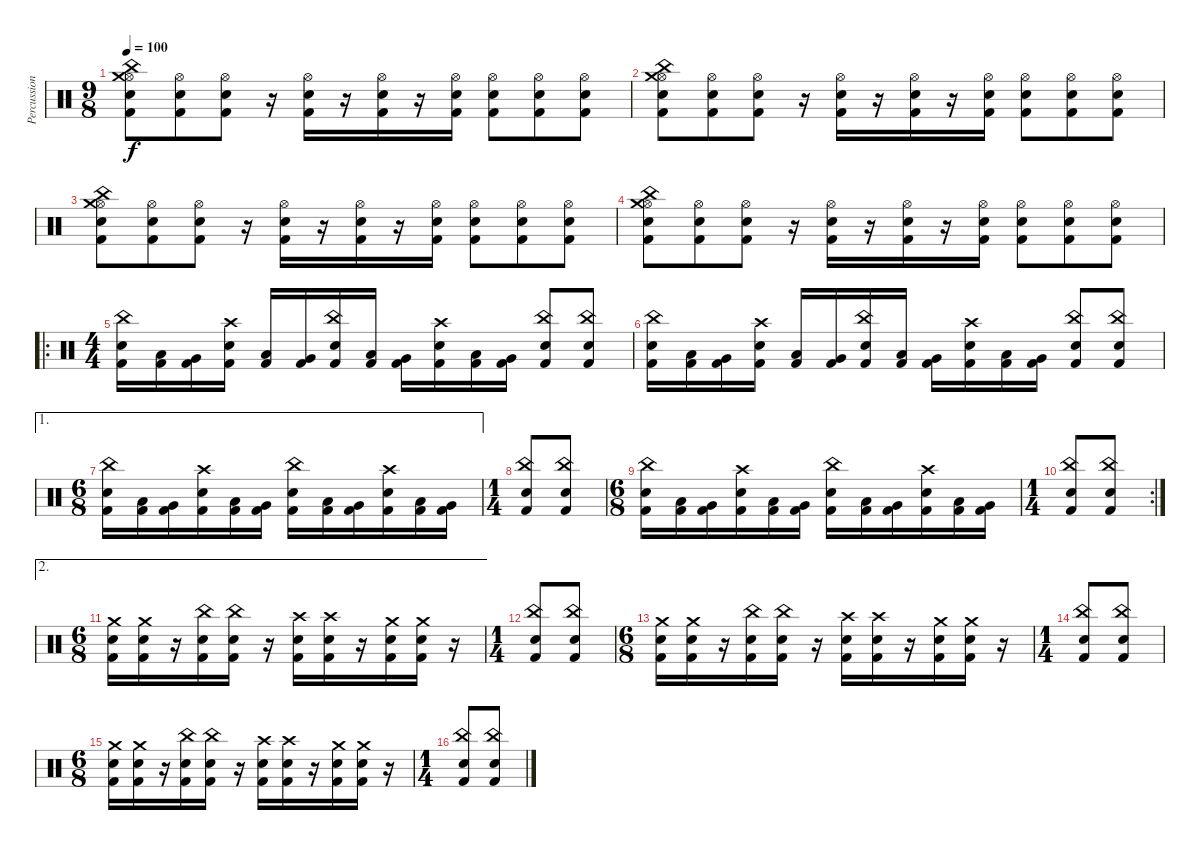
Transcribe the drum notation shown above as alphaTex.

\track ("Percussion" "Percussion") {instrument percussion}
\staff {score}
\articulation defaults
\ts (9 8)
\tempo 100
\clef neutral
\ks c
("Hi-Hat (open)" "Crash medium (hit)" "Electric Snare (hit)" "China (hit)" "Kick (hit) 2").8{dy f} ("Hi-Hat (open)" "Electric Snare (hit)" "Kick (hit) 2").8 ("Hi-Hat (open)" "Electric Snare (hit)" "Kick (hit) 2").8 r.16 ("Hi-Hat (open)" "Electric Snare (hit)" "Kick (hit) 2").16 r.16 ("Hi-Hat (open)" "Electric Snare (hit)" "Kick (hit) 2").16 r.16 ("Hi-Hat (open)" "Electric Snare (hit)" "Kick (hit) 2").16 ("Hi-Hat (open)" "Electric Snare (hit)" "Kick (hit) 2").8 ("Hi-Hat (open)" "Electric Snare (hit)" "Kick (hit) 2").8 ("Hi-Hat (open)" "Electric Snare (hit)" "Kick (hit) 2").8 |
("Hi-Hat (open)" "Crash medium (hit)" "Electric Snare (hit)" "China (hit)" "Kick (hit) 2").8 ("Hi-Hat (open)" "Electric Snare (hit)" "Kick (hit) 2").8 ("Hi-Hat (open)" "Electric Snare (hit)" "Kick (hit) 2").8 r.16 ("Hi-Hat (open)" "Electric Snare (hit)" "Kick (hit) 2").16 r.16 ("Hi-Hat (open)" "Electric Snare (hit)" "Kick (hit) 2").16 r.16 ("Hi-Hat (open)" "Electric Snare (hit)" "Kick (hit) 2").16 ("Hi-Hat (open)" "Electric Snare (hit)" "Kick (hit) 2").8 ("Hi-Hat (open)" "Electric Snare (hit)" "Kick (hit) 2").8 ("Hi-Hat (open)" "Electric Snare (hit)" "Kick (hit) 2").8 |
("Hi-Hat (open)" "Crash medium (hit)" "Electric Snare (hit)" "China (hit)" "Kick (hit) 2").8 ("Hi-Hat (open)" "Electric Snare (hit)" "Kick (hit) 2").8 ("Hi-Hat (open)" "Electric Snare (hit)" "Kick (hit) 2").8 r.16 ("Hi-Hat (open)" "Electric Snare (hit)" "Kick (hit) 2").16 r.16 ("Hi-Hat (open)" "Electric Snare (hit)" "Kick (hit) 2").16 r.16 ("Hi-Hat (open)" "Electric Snare (hit)" "Kick (hit) 2").16 ("Hi-Hat (open)" "Electric Snare (hit)" "Kick (hit) 2").8 ("Hi-Hat (open)" "Electric Snare (hit)" "Kick (hit) 2").8 ("Hi-Hat (open)" "Electric Snare (hit)" "Kick (hit) 2").8 |
("Hi-Hat (open)" "Crash medium (hit)" "Electric Snare (hit)" "China (hit)" "Kick (hit) 2").8 ("Hi-Hat (open)" "Electric Snare (hit)" "Kick (hit) 2").8 ("Hi-Hat (open)" "Electric Snare (hit)" "Kick (hit) 2").8 r.16 ("Hi-Hat (open)" "Electric Snare (hit)" "Kick (hit) 2").16 r.16 ("Hi-Hat (open)" "Electric Snare (hit)" "Kick (hit) 2").16 r.16 ("Hi-Hat (open)" "Electric Snare (hit)" "Kick (hit) 2").16 ("Hi-Hat (open)" "Electric Snare (hit)" "Kick (hit) 2").8 ("Hi-Hat (open)" "Electric Snare (hit)" "Kick (hit) 2").8 ("Hi-Hat (open)" "Electric Snare (hit)" "Kick (hit) 2").8 |
\ro
\ts (4 4)
("China (hit)" "Electric Snare (hit)" "Kick (hit) 2").16 ("Low Tom (hit)" "Kick (hit) 2").16 ("Very Low Tom (hit)" "Kick (hit) 2").16 ("Crash high (hit)" "Electric Snare (hit)" "Kick (hit) 2").16 ("Low Tom (hit)" "Kick (hit) 2").16 ("Very Low Tom (hit)" "Kick (hit) 2").16 ("China (hit)" "Electric Snare (hit)" "Kick (hit) 2").16 ("Low Tom (hit)" "Kick (hit) 2").16 ("Very Low Tom (hit)" "Kick (hit) 2").16 ("Crash high (hit)" "Electric Snare (hit)" "Kick (hit) 2").16 ("Low Tom (hit)" "Kick (hit) 2").16 ("Very Low Tom (hit)" "Kick (hit) 2").16 ("China (hit)" "Electric Snare (hit)" "Kick (hit) 2").8 ("China (hit)" "Electric Snare (hit)" "Kick (hit) 2").8 |
("China (hit)" "Electric Snare (hit)" "Kick (hit) 2").16 ("Low Tom (hit)" "Kick (hit) 2").16 ("Very Low Tom (hit)" "Kick (hit) 2").16 ("Crash high (hit)" "Electric Snare (hit)" "Kick (hit) 2").16 ("Low Tom (hit)" "Kick (hit) 2").16 ("Very Low Tom (hit)" "Kick (hit) 2").16 ("China (hit)" "Electric Snare (hit)" "Kick (hit) 2").16 ("Low Tom (hit)" "Kick (hit) 2").16 ("Very Low Tom (hit)" "Kick (hit) 2").16 ("Crash high (hit)" "Electric Snare (hit)" "Kick (hit) 2").16 ("Low Tom (hit)" "Kick (hit) 2").16 ("Very Low Tom (hit)" "Kick (hit) 2").16 ("China (hit)" "Electric Snare (hit)" "Kick (hit) 2").8 ("China (hit)" "Electric Snare (hit)" "Kick (hit) 2").8 |
\ae 1
\ts (6 8)
("China (hit)" "Electric Snare (hit)" "Kick (hit) 2").16 ("Low Tom (hit)" "Kick (hit) 2").16 ("Very Low Tom (hit)" "Kick (hit) 2").16 ("Crash high (hit)" "Electric Snare (hit)" "Kick (hit) 2").16 ("Low Tom (hit)" "Kick (hit) 2").16 ("Very Low Tom (hit)" "Kick (hit) 2").16 ("China (hit)" "Electric Snare (hit)" "Kick (hit) 2").16 ("Low Tom (hit)" "Kick (hit) 2").16 ("Very Low Tom (hit)" "Kick (hit) 2").16 ("Crash high (hit)" "Electric Snare (hit)" "Kick (hit) 2").16 ("Low Tom (hit)" "Kick (hit) 2").16 ("Very Low Tom (hit)" "Kick (hit) 2").16 |
\ts (1 4)
("China (hit)" "Electric Snare (hit)" "Kick (hit) 2").8 ("China (hit)" "Electric Snare (hit)" "Kick (hit) 2").8 |
\ts (6 8)
("China (hit)" "Electric Snare (hit)" "Kick (hit) 2").16 ("Low Tom (hit)" "Kick (hit) 2").16 ("Very Low Tom (hit)" "Kick (hit) 2").16 ("Crash high (hit)" "Electric Snare (hit)" "Kick (hit) 2").16 ("Low Tom (hit)" "Kick (hit) 2").16 ("Very Low Tom (hit)" "Kick (hit) 2").16 ("China (hit)" "Electric Snare (hit)" "Kick (hit) 2").16 ("Low Tom (hit)" "Kick (hit) 2").16 ("Very Low Tom (hit)" "Kick (hit) 2").16 ("Crash high (hit)" "Electric Snare (hit)" "Kick (hit) 2").16 ("Low Tom (hit)" "Kick (hit) 2").16 ("Very Low Tom (hit)" "Kick (hit) 2").16 |
\rc 2
\ts (1 4)
("China (hit)" "Electric Snare (hit)" "Kick (hit) 2").8 ("China (hit)" "Electric Snare (hit)" "Kick (hit) 2").8 |
\ae 2
\ts (6 8)
("Crash medium (hit)" "Electric Snare (hit)" "Kick (hit) 2").16 ("Crash medium (hit)" "Electric Snare (hit)" "Kick (hit) 2").16 r.16 ("China (hit)" "Electric Snare (hit)" "Kick (hit) 2").16 ("China (hit)" "Electric Snare (hit)" "Kick (hit) 2").16 r.16 ("Crash high (hit)" "Electric Snare (hit)" "Kick (hit) 2").16 ("Crash high (hit)" "Electric Snare (hit)" "Kick (hit) 2").16 r.16 ("Crash medium (hit)" "Electric Snare (hit)" "Kick (hit) 2").16 ("Crash medium (hit)" "Electric Snare (hit)" "Kick (hit) 2").16 r.16 |
\ts (1 4)
("China (hit)" "Electric Snare (hit)" "Kick (hit) 2").8 ("China (hit)" "Electric Snare (hit)" "Kick (hit) 2").8 |
\ts (6 8)
("Crash medium (hit)" "Electric Snare (hit)" "Kick (hit) 2").16 ("Crash medium (hit)" "Electric Snare (hit)" "Kick (hit) 2").16 r.16 ("China (hit)" "Electric Snare (hit)" "Kick (hit) 2").16 ("China (hit)" "Electric Snare (hit)" "Kick (hit) 2").16 r.16 ("Crash high (hit)" "Electric Snare (hit)" "Kick (hit) 2").16 ("Crash high (hit)" "Electric Snare (hit)" "Kick (hit) 2").16 r.16 ("Crash medium (hit)" "Electric Snare (hit)" "Kick (hit) 2").16 ("Crash medium (hit)" "Electric Snare (hit)" "Kick (hit) 2").16 r.16 |
\ts (1 4)
("China (hit)" "Electric Snare (hit)" "Kick (hit) 2").8 ("China (hit)" "Electric Snare (hit)" "Kick (hit) 2").8 |
\ts (6 8)
("Crash medium (hit)" "Electric Snare (hit)" "Kick (hit) 2").16 ("Crash medium (hit)" "Electric Snare (hit)" "Kick (hit) 2").16 r.16 ("China (hit)" "Electric Snare (hit)" "Kick (hit) 2").16 ("China (hit)" "Electric Snare (hit)" "Kick (hit) 2").16 r.16 ("Crash high (hit)" "Electric Snare (hit)" "Kick (hit) 2").16 ("Crash high (hit)" "Electric Snare (hit)" "Kick (hit) 2").16 r.16 ("Crash medium (hit)" "Electric Snare (hit)" "Kick (hit) 2").16 ("Crash medium (hit)" "Electric Snare (hit)" "Kick (hit) 2").16 r.16 |
\ts (1 4)
("China (hit)" "Electric Snare (hit)" "Kick (hit) 2").8 ("China (hit)" "Electric Snare (hit)" "Kick (hit) 2").8
